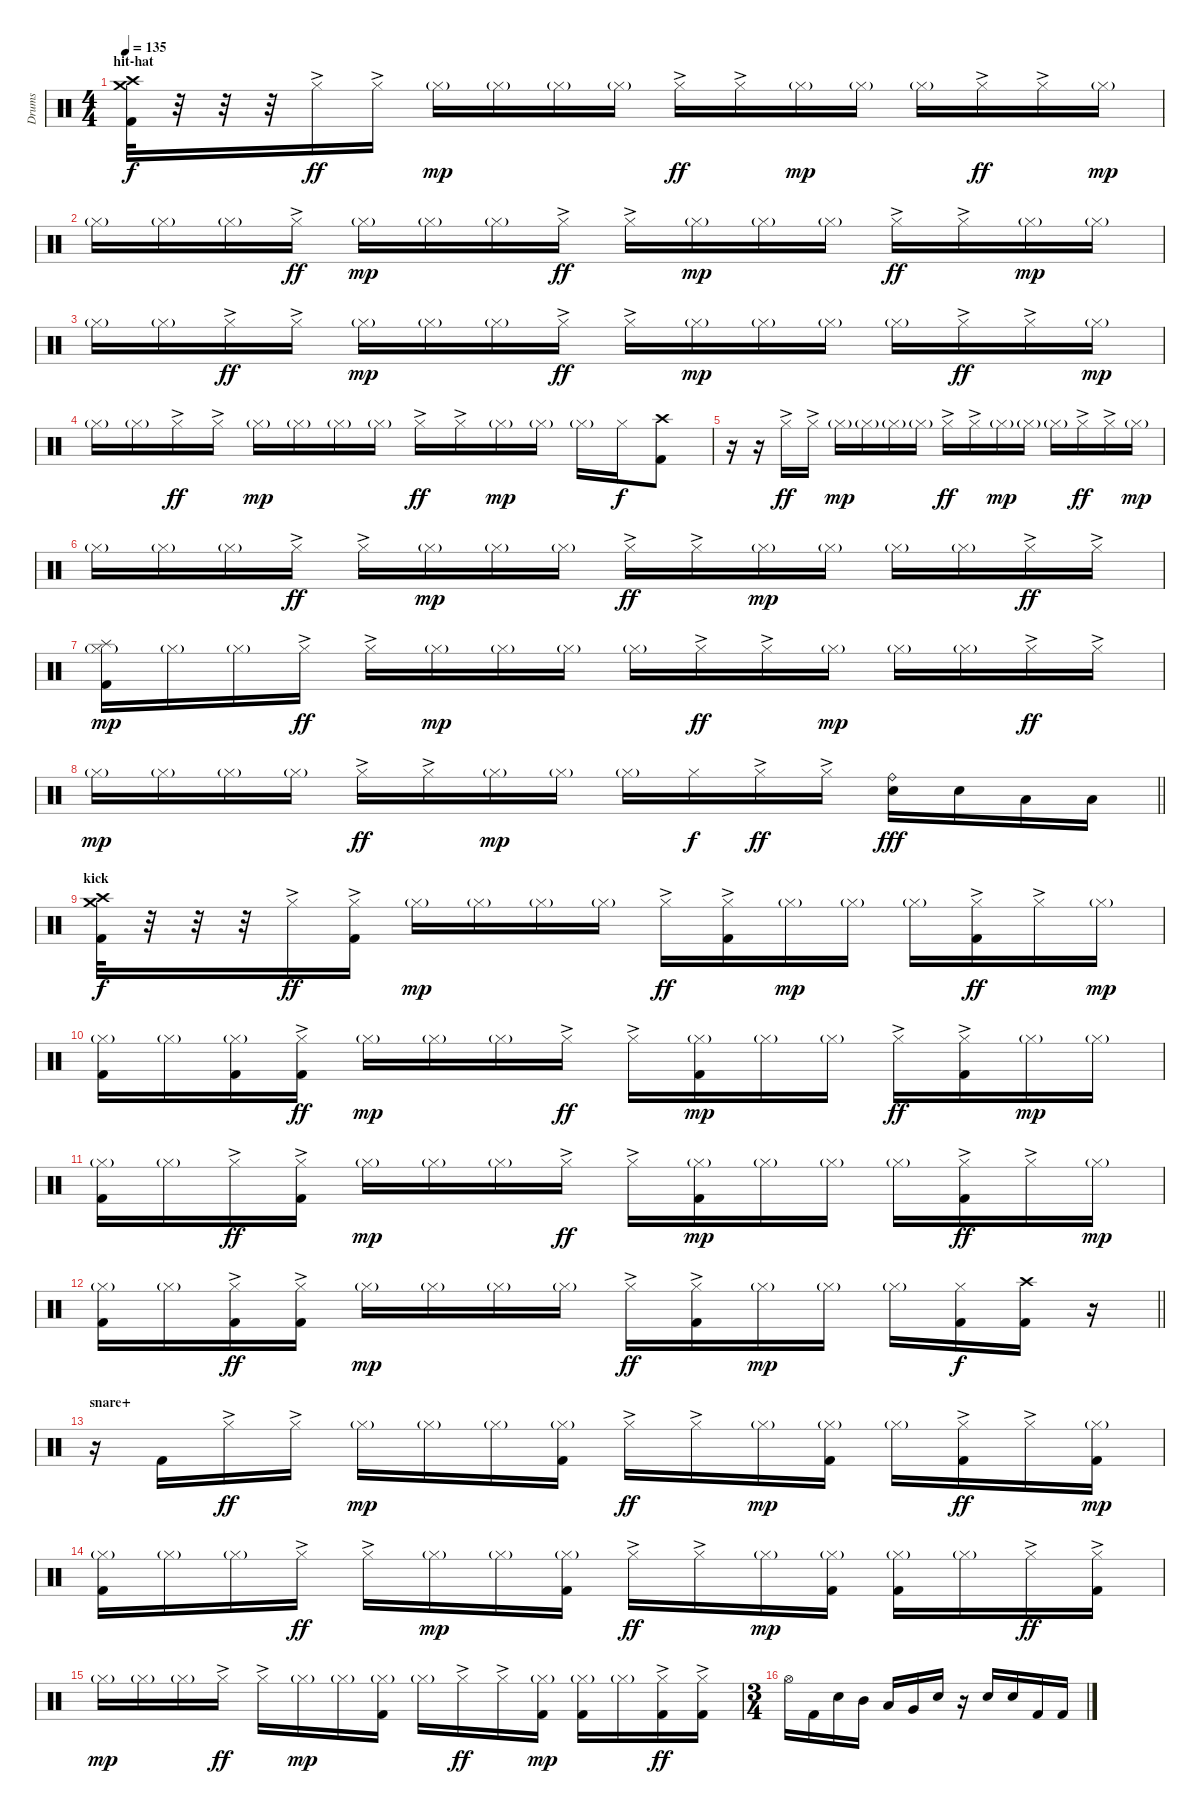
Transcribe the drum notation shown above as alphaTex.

\track ("Drums" "Drums") {instrument percussion}
\staff {score}
\articulation defaults
\ts (4 4)
\section ("" "hit-hat")
\tempo 135
\clef neutral
\ks c
("Crash high (hit)" "Crash medium (hit)" "Kick (hit) 2").32{dy f} r.32 r.32 r.32 "Hi-Hat (closed)"{ac}.16{dy ff} "Hi-Hat (closed)"{ac}.16 "Hi-Hat (closed)"{g}.16{dy mp} "Hi-Hat (closed)"{g}.16 "Hi-Hat (closed)"{g}.16 "Hi-Hat (closed)"{g}.16 "Hi-Hat (closed)"{ac}.16{dy ff} "Hi-Hat (closed)"{ac}.16 "Hi-Hat (closed)"{g}.16{dy mp} "Hi-Hat (closed)"{g}.16 "Hi-Hat (closed)"{g}.16 "Hi-Hat (closed)"{ac}.16{dy ff} "Hi-Hat (closed)"{ac}.16 "Hi-Hat (closed)"{g}.16{dy mp} |
"Hi-Hat (closed)"{g}.16 "Hi-Hat (closed)"{g}.16 "Hi-Hat (closed)"{g}.16 "Hi-Hat (closed)"{ac}.16{dy ff} "Hi-Hat (closed)"{g}.16{dy mp} "Hi-Hat (closed)"{g}.16 "Hi-Hat (closed)"{g}.16 "Hi-Hat (closed)"{ac}.16{dy ff} "Hi-Hat (closed)"{ac}.16 "Hi-Hat (closed)"{g}.16{dy mp} "Hi-Hat (closed)"{g}.16 "Hi-Hat (closed)"{g}.16 "Hi-Hat (closed)"{ac}.16{dy ff} "Hi-Hat (closed)"{ac}.16 "Hi-Hat (closed)"{g}.16{dy mp} "Hi-Hat (closed)"{g}.16 |
"Hi-Hat (closed)"{g}.16 "Hi-Hat (closed)"{g}.16 "Hi-Hat (closed)"{ac}.16{dy ff} "Hi-Hat (closed)"{ac}.16 "Hi-Hat (closed)"{g}.16{dy mp} "Hi-Hat (closed)"{g}.16 "Hi-Hat (closed)"{g}.16 "Hi-Hat (closed)"{ac}.16{dy ff} "Hi-Hat (closed)"{ac}.16 "Hi-Hat (closed)"{g}.16{dy mp} "Hi-Hat (closed)"{g}.16 "Hi-Hat (closed)"{g}.16 "Hi-Hat (closed)"{g}.16 "Hi-Hat (closed)"{ac}.16{dy ff} "Hi-Hat (closed)"{ac}.16 "Hi-Hat (closed)"{g}.16{dy mp} |
"Hi-Hat (closed)"{g}.16 "Hi-Hat (closed)"{g}.16 "Hi-Hat (closed)"{ac}.16{dy ff} "Hi-Hat (closed)"{ac}.16 "Hi-Hat (closed)"{g}.16{dy mp} "Hi-Hat (closed)"{g}.16 "Hi-Hat (closed)"{g}.16 "Hi-Hat (closed)"{g}.16 "Hi-Hat (closed)"{ac}.16{dy ff} "Hi-Hat (closed)"{ac}.16 "Hi-Hat (closed)"{g}.16{dy mp} "Hi-Hat (closed)"{g}.16 "Hi-Hat (closed)"{g}.16 "Hi-Hat (closed)".16{dy f} ("Crash high (hit)" "Kick (hit) 2").8 |
r.16 r.16 "Hi-Hat (closed)"{ac}.16{dy ff} "Hi-Hat (closed)"{ac}.16 "Hi-Hat (closed)"{g}.16{dy mp} "Hi-Hat (closed)"{g}.16 "Hi-Hat (closed)"{g}.16 "Hi-Hat (closed)"{g}.16 "Hi-Hat (closed)"{ac}.16{dy ff} "Hi-Hat (closed)"{ac}.16 "Hi-Hat (closed)"{g}.16{dy mp} "Hi-Hat (closed)"{g}.16 "Hi-Hat (closed)"{g}.16 "Hi-Hat (closed)"{ac}.16{dy ff} "Hi-Hat (closed)"{ac}.16 "Hi-Hat (closed)"{g}.16{dy mp} |
"Hi-Hat (closed)"{g}.16 "Hi-Hat (closed)"{g}.16 "Hi-Hat (closed)"{g}.16 "Hi-Hat (closed)"{ac}.16{dy ff} "Hi-Hat (closed)"{ac}.16 "Hi-Hat (closed)"{g}.16{dy mp} "Hi-Hat (closed)"{g}.16 "Hi-Hat (closed)"{g}.16 "Hi-Hat (closed)"{ac}.16{dy ff} "Hi-Hat (closed)"{ac}.16 "Hi-Hat (closed)"{g}.16{dy mp} "Hi-Hat (closed)"{g}.16 "Hi-Hat (closed)"{g}.16 "Hi-Hat (closed)"{g}.16 "Hi-Hat (closed)"{ac}.16{dy ff} "Hi-Hat (closed)"{ac}.16 |
("Splash (hit)" "Hi-Hat (closed)"{g} "Kick (hit) 2").16{dy mp} "Hi-Hat (closed)"{g}.16 "Hi-Hat (closed)"{g}.16 "Hi-Hat (closed)"{ac}.16{dy ff} "Hi-Hat (closed)"{ac}.16 "Hi-Hat (closed)"{g}.16{dy mp} "Hi-Hat (closed)"{g}.16 "Hi-Hat (closed)"{g}.16 "Hi-Hat (closed)"{g}.16 "Hi-Hat (closed)"{ac}.16{dy ff} "Hi-Hat (closed)"{ac}.16 "Hi-Hat (closed)"{g}.16{dy mp} "Hi-Hat (closed)"{g}.16 "Hi-Hat (closed)"{g}.16 "Hi-Hat (closed)"{ac}.16{dy ff} "Hi-Hat (closed)"{ac}.16 |
\barLineRight lightlight "Hi-Hat (closed)"{g}.16{dy mp} "Hi-Hat (closed)"{g}.16 "Hi-Hat (closed)"{g}.16 "Hi-Hat (closed)"{g}.16 "Hi-Hat (closed)"{ac}.16{dy ff} "Hi-Hat (closed)"{ac}.16 "Hi-Hat (closed)"{g}.16{dy mp} "Hi-Hat (closed)"{g}.16 "Hi-Hat (closed)"{g}.16 "Hi-Hat (closed)".16{dy f} "Hi-Hat (closed)"{ac}.16{dy ff} "Hi-Hat (closed)"{ac}.16
("Ride (bell)" "Electric Snare (hit)").16{dy fff} "Electric Snare (hit)".16 "Low Tom (hit)".16 "Low Tom (hit)".16 |
\section ("" "kick")
("Crash high (hit)" "Crash medium (hit)" "Kick (hit) 2").32{dy f} r.32 r.32 r.32 "Hi-Hat (closed)"{ac}.16{dy ff} ("Hi-Hat (closed)"{ac} "Kick (hit) 2").16 "Hi-Hat (closed)"{g}.16{dy mp} "Hi-Hat (closed)"{g}.16 "Hi-Hat (closed)"{g}.16 "Hi-Hat (closed)"{g}.16 "Hi-Hat (closed)"{ac}.16{dy ff} ("Hi-Hat (closed)"{ac} "Kick (hit) 2").16 "Hi-Hat (closed)"{g}.16{dy mp} "Hi-Hat (closed)"{g}.16 "Hi-Hat (closed)"{g}.16 ("Hi-Hat (closed)"{ac} "Kick (hit) 2").16{dy ff} "Hi-Hat (closed)"{ac}.16 "Hi-Hat (closed)"{g}.16{dy mp} |
("Hi-Hat (closed)"{g} "Kick (hit) 2").16 "Hi-Hat (closed)"{g}.16 ("Hi-Hat (closed)"{g} "Kick (hit) 2").16 ("Hi-Hat (closed)"{ac} "Kick (hit) 2").16{dy ff} "Hi-Hat (closed)"{g}.16{dy mp} "Hi-Hat (closed)"{g}.16 "Hi-Hat (closed)"{g}.16 "Hi-Hat (closed)"{ac}.16{dy ff} "Hi-Hat (closed)"{ac}.16 ("Hi-Hat (closed)"{g} "Kick (hit) 2").16{dy mp} "Hi-Hat (closed)"{g}.16 "Hi-Hat (closed)"{g}.16 "Hi-Hat (closed)"{ac}.16{dy ff} ("Hi-Hat (closed)"{ac} "Kick (hit) 2").16 "Hi-Hat (closed)"{g}.16{dy mp} "Hi-Hat (closed)"{g}.16 |
("Hi-Hat (closed)"{g} "Kick (hit) 2").16 "Hi-Hat (closed)"{g}.16 "Hi-Hat (closed)"{ac}.16{dy ff} ("Hi-Hat (closed)"{ac} "Kick (hit) 2").16 "Hi-Hat (closed)"{g}.16{dy mp} "Hi-Hat (closed)"{g}.16 "Hi-Hat (closed)"{g}.16 "Hi-Hat (closed)"{ac}.16{dy ff} "Hi-Hat (closed)"{ac}.16 ("Hi-Hat (closed)"{g} "Kick (hit) 2").16{dy mp} "Hi-Hat (closed)"{g}.16 "Hi-Hat (closed)"{g}.16 "Hi-Hat (closed)"{g}.16 ("Hi-Hat (closed)"{ac} "Kick (hit) 2").16{dy ff} "Hi-Hat (closed)"{ac}.16 "Hi-Hat (closed)"{g}.16{dy mp} |
\barLineRight lightlight
("Hi-Hat (closed)"{g} "Kick (hit) 2").16 "Hi-Hat (closed)"{g}.16 ("Hi-Hat (closed)"{ac} "Kick (hit) 2").16{dy ff} ("Hi-Hat (closed)"{ac} "Kick (hit) 2").16 "Hi-Hat (closed)"{g}.16{dy mp} "Hi-Hat (closed)"{g}.16 "Hi-Hat (closed)"{g}.16 "Hi-Hat (closed)"{g}.16 "Hi-Hat (closed)"{ac}.16{dy ff} ("Hi-Hat (closed)"{ac} "Kick (hit) 2").16 "Hi-Hat (closed)"{g}.16{dy mp} "Hi-Hat (closed)"{g}.16 "Hi-Hat (closed)"{g}.16 ("Hi-Hat (closed)" "Kick (hit) 2").16{dy f} ("Crash high (hit)" "Kick (hit) 2").16 r.16 |
\section ("" "snare+")
r.16 "Kick (hit) 2".16 "Hi-Hat (closed)"{ac}.16{dy ff} "Hi-Hat (closed)"{ac}.16 "Hi-Hat (closed)"{g}.16{dy mp} "Hi-Hat (closed)"{g}.16 "Hi-Hat (closed)"{g}.16 ("Hi-Hat (closed)"{g} "Kick (hit) 2").16 "Hi-Hat (closed)"{ac}.16{dy ff} "Hi-Hat (closed)"{ac}.16 "Hi-Hat (closed)"{g}.16{dy mp} ("Hi-Hat (closed)"{g} "Kick (hit) 2").16 "Hi-Hat (closed)"{g}.16 ("Hi-Hat (closed)"{ac} "Kick (hit) 2").16{dy ff} "Hi-Hat (closed)"{ac}.16 ("Hi-Hat (closed)"{g} "Kick (hit) 2").16{dy mp} |
("Hi-Hat (closed)"{g} "Kick (hit) 2").16 "Hi-Hat (closed)"{g}.16 "Hi-Hat (closed)"{g}.16 "Hi-Hat (closed)"{ac}.16{dy ff} "Hi-Hat (closed)"{ac}.16 "Hi-Hat (closed)"{g}.16{dy mp} "Hi-Hat (closed)"{g}.16 ("Hi-Hat (closed)"{g} "Kick (hit) 2").16 "Hi-Hat (closed)"{ac}.16{dy ff} "Hi-Hat (closed)"{ac}.16 "Hi-Hat (closed)"{g}.16{dy mp} ("Hi-Hat (closed)"{g} "Kick (hit) 2").16 ("Hi-Hat (closed)"{g} "Kick (hit) 2").16 "Hi-Hat (closed)"{g}.16 "Hi-Hat (closed)"{ac}.16{dy ff} ("Hi-Hat (closed)"{ac} "Kick (hit) 2").16 |
"Hi-Hat (closed)"{g}.16{dy mp} "Hi-Hat (closed)"{g}.16 "Hi-Hat (closed)"{g}.16 "Hi-Hat (closed)"{ac}.16{dy ff} "Hi-Hat (closed)"{ac}.16 "Hi-Hat (closed)"{g}.16{dy mp} "Hi-Hat (closed)"{g}.16 ("Hi-Hat (closed)"{g} "Kick (hit) 2").16 "Hi-Hat (closed)"{g}.16 "Hi-Hat (closed)"{ac}.16{dy ff} "Hi-Hat (closed)"{ac}.16 ("Hi-Hat (closed)"{g} "Kick (hit) 2").16{dy mp} ("Hi-Hat (closed)"{g} "Kick (hit) 2").16 "Hi-Hat (closed)"{g}.16 ("Hi-Hat (closed)"{ac} "Kick (hit) 2").16{dy ff} ("Hi-Hat (closed)"{ac} "Kick (hit) 2").16 |
\ts (3 4)
"Hi-Hat (open)".16 "Kick (hit) 2".16 "Electric Snare (hit)".16 "Mid Tom (hit)".16 "Low Tom (hit)".16 "Very Low Tom (hit)".16 "Electric Snare (hit)".16 r.16 "Electric Snare (hit)".16 "Electric Snare (hit)".16 "Kick (hit) 2".16 "Kick (hit) 2".16
